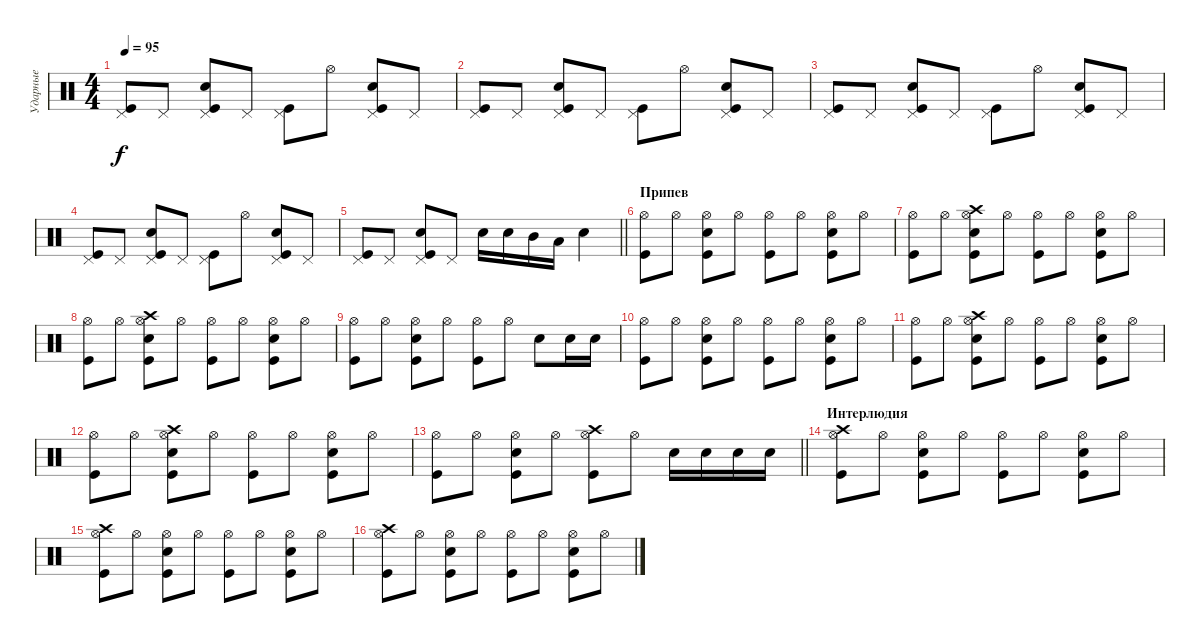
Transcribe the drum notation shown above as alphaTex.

\track ("Ударные" "Ударные") {instrument percussion}
\staff {score}
\articulation defaults
\ts (4 4)
\tempo 95
\clef neutral
\ks c
("Pedal Hi-Hat (hit)" "Kick (hit)").8{dy f} "Pedal Hi-Hat (hit)".8 ("Electric Snare (hit)" "Pedal Hi-Hat (hit)" "Kick (hit)").8 "Pedal Hi-Hat (hit)".8 ("Pedal Hi-Hat (hit)" "Kick (hit)").8 "Hi-Hat (open)".8 ("Electric Snare (hit)" "Pedal Hi-Hat (hit)" "Kick (hit)").8 "Pedal Hi-Hat (hit)".8 |
("Pedal Hi-Hat (hit)" "Kick (hit)").8 "Pedal Hi-Hat (hit)".8 ("Electric Snare (hit)" "Pedal Hi-Hat (hit)" "Kick (hit)").8 "Pedal Hi-Hat (hit)".8 ("Pedal Hi-Hat (hit)" "Kick (hit)").8 "Hi-Hat (open)".8 ("Electric Snare (hit)" "Pedal Hi-Hat (hit)" "Kick (hit)").8 "Pedal Hi-Hat (hit)".8 |
("Pedal Hi-Hat (hit)" "Kick (hit)").8 "Pedal Hi-Hat (hit)".8 ("Electric Snare (hit)" "Pedal Hi-Hat (hit)" "Kick (hit)").8 "Pedal Hi-Hat (hit)".8 ("Pedal Hi-Hat (hit)" "Kick (hit)").8 "Hi-Hat (open)".8 ("Electric Snare (hit)" "Pedal Hi-Hat (hit)" "Kick (hit)").8 "Pedal Hi-Hat (hit)".8 |
("Pedal Hi-Hat (hit)" "Kick (hit)").8 "Pedal Hi-Hat (hit)".8 ("Electric Snare (hit)" "Pedal Hi-Hat (hit)" "Kick (hit)").8 "Pedal Hi-Hat (hit)".8 ("Pedal Hi-Hat (hit)" "Kick (hit)").8 "Hi-Hat (open)".8 ("Electric Snare (hit)" "Pedal Hi-Hat (hit)" "Kick (hit)").8 "Pedal Hi-Hat (hit)".8 |
\barLineRight lightlight
("Pedal Hi-Hat (hit)" "Kick (hit)").8 "Pedal Hi-Hat (hit)".8 ("Electric Snare (hit)" "Pedal Hi-Hat (hit)" "Kick (hit)").8 "Pedal Hi-Hat (hit)".8 "Electric Snare (hit)".16 "Electric Snare (hit)".16 "Mid Tom (hit)".16 "Low Tom (hit)".16 "Snare (hit) 2".4 |
\section ("" "Припев")
("Hi-Hat (open)" "Kick (hit)").8 "Hi-Hat (open)".8 ("Electric Snare (hit)" "Hi-Hat (open)" "Kick (hit)").8 "Hi-Hat (open)".8 ("Hi-Hat (open)" "Kick (hit)").8 "Hi-Hat (open)".8 ("Electric Snare (hit)" "Hi-Hat (open)" "Kick (hit)").8 "Hi-Hat (open)".8 |
("Hi-Hat (open)" "Kick (hit)").8 "Hi-Hat (open)".8 ("Electric Snare (hit)" "Crash high (hit)" "Hi-Hat (open)" "Kick (hit)").8 "Hi-Hat (open)".8 ("Hi-Hat (open)" "Kick (hit)").8 "Hi-Hat (open)".8 ("Electric Snare (hit)" "Hi-Hat (open)" "Kick (hit)").8 "Hi-Hat (open)".8 |
("Hi-Hat (open)" "Kick (hit)").8 "Hi-Hat (open)".8 ("Electric Snare (hit)" "Crash high (hit)" "Hi-Hat (open)" "Kick (hit)").8 "Hi-Hat (open)".8 ("Hi-Hat (open)" "Kick (hit)").8 "Hi-Hat (open)".8 ("Electric Snare (hit)" "Hi-Hat (open)" "Kick (hit)").8 "Hi-Hat (open)".8 |
("Hi-Hat (open)" "Kick (hit)").8 "Hi-Hat (open)".8 ("Electric Snare (hit)" "Hi-Hat (open)" "Kick (hit)").8 "Hi-Hat (open)".8 ("Hi-Hat (open)" "Kick (hit)").8 "Hi-Hat (open)".8 "Electric Snare (hit)".8 "Electric Snare (hit)".16 "Electric Snare (hit)".16 |
("Hi-Hat (open)" "Kick (hit)").8 "Hi-Hat (open)".8 ("Electric Snare (hit)" "Hi-Hat (open)" "Kick (hit)").8 "Hi-Hat (open)".8 ("Hi-Hat (open)" "Kick (hit)").8 "Hi-Hat (open)".8 ("Electric Snare (hit)" "Hi-Hat (open)" "Kick (hit)").8 "Hi-Hat (open)".8 |
("Hi-Hat (open)" "Kick (hit)").8 "Hi-Hat (open)".8 ("Electric Snare (hit)" "Crash high (hit)" "Hi-Hat (open)" "Kick (hit)").8 "Hi-Hat (open)".8 ("Hi-Hat (open)" "Kick (hit)").8 "Hi-Hat (open)".8 ("Electric Snare (hit)" "Hi-Hat (open)" "Kick (hit)").8 "Hi-Hat (open)".8 |
("Hi-Hat (open)" "Kick (hit)").8 "Hi-Hat (open)".8 ("Electric Snare (hit)" "Crash high (hit)" "Hi-Hat (open)" "Kick (hit)").8 "Hi-Hat (open)".8 ("Hi-Hat (open)" "Kick (hit)").8 "Hi-Hat (open)".8 ("Electric Snare (hit)" "Hi-Hat (open)" "Kick (hit)").8 "Hi-Hat (open)".8 |
\barLineRight lightlight
("Hi-Hat (open)" "Kick (hit)").8 "Hi-Hat (open)".8 ("Electric Snare (hit)" "Hi-Hat (open)" "Kick (hit)").8 "Hi-Hat (open)".8 ("Crash high (hit)" "Hi-Hat (open)" "Kick (hit)").8 "Hi-Hat (open)".8 "Electric Snare (hit)".16 "Electric Snare (hit)".16 "Electric Snare (hit)".16 "Electric Snare (hit)".16 |
\section ("" "Интерлюдия")
("Crash high (hit)" "Hi-Hat (open)" "Kick (hit)").8 "Hi-Hat (open)".8 ("Electric Snare (hit)" "Hi-Hat (open)" "Kick (hit)").8 "Hi-Hat (open)".8 ("Hi-Hat (open)" "Kick (hit)").8 "Hi-Hat (open)".8 ("Electric Snare (hit)" "Hi-Hat (open)" "Kick (hit)").8 "Hi-Hat (open)".8 |
("Crash high (hit)" "Hi-Hat (open)" "Kick (hit)").8 "Hi-Hat (open)".8 ("Electric Snare (hit)" "Hi-Hat (open)" "Kick (hit)").8 "Hi-Hat (open)".8 ("Hi-Hat (open)" "Kick (hit)").8 "Hi-Hat (open)".8 ("Electric Snare (hit)" "Hi-Hat (open)" "Kick (hit)").8 "Hi-Hat (open)".8 |
("Crash high (hit)" "Hi-Hat (open)" "Kick (hit)").8 "Hi-Hat (open)".8 ("Electric Snare (hit)" "Hi-Hat (open)" "Kick (hit)").8 "Hi-Hat (open)".8 ("Hi-Hat (open)" "Kick (hit)").8 "Hi-Hat (open)".8 ("Electric Snare (hit)" "Hi-Hat (open)" "Kick (hit)").8 "Hi-Hat (open)".8
